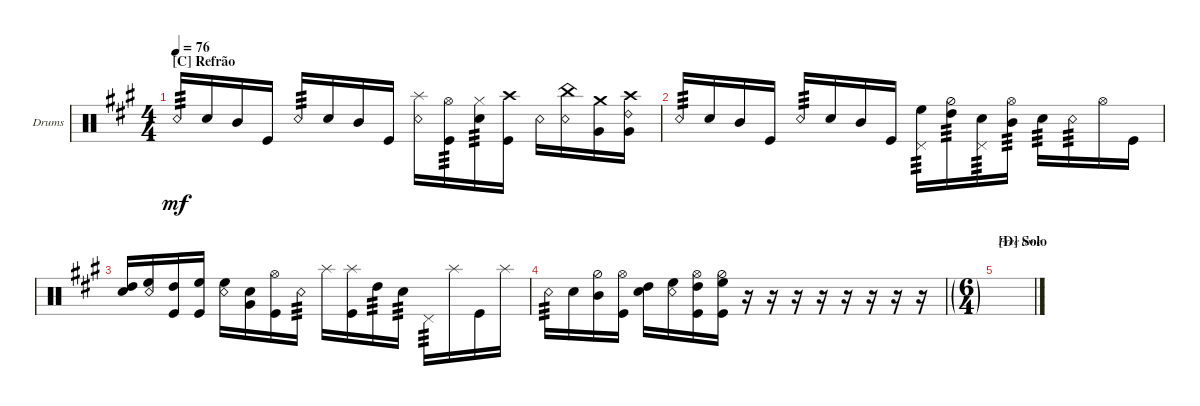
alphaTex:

\defaultSystemsLayout 4
\bracketExtendMode groupsimilarinstruments
\firstSystemTrackNameOrientation horizontal
\otherSystemsTrackNameOrientation horizontal
\track ("Drums" "Drums") {instrument percussion}
\staff {score}
\articulation defaults
\ts (4 4)
\section ("C" "Refrão")
\tempo 76
\clef neutral
\ks a "Snare (rim shot)".16{tp 3 dy mf} "Snare (hit) 2".16 "Mid Tom (hit)".16 "Kick (hit)".16 "Snare (rim shot)".16{tp 3} "Snare (hit) 2".16 "Mid Tom (hit)".16 "Kick (hit)".16
("Snare (rim shot)" "Splash (hit)").16 ("Kick (hit)" "Hi-Hat (open)").16{tp 3} ("Snare (hit) 2" "Hi-Hat (closed)").16{tp 3} ("Kick (hit)" "Crash high (hit)").16 "Snare (rim shot)".16 ("Snare (rim shot)" "China (hit)").16 ("Very Low Tom (hit)" "Crash medium (hit)").16 ("Very Low Tom (hit)" "Crash high (hit)" "Ride (bell) 2").16 |
"Snare (rim shot)".16{tp 3} "Snare (hit) 2".16 "Mid Tom (hit)".16 "Kick (hit)".16 "Snare (rim shot)".16{tp 3} "Snare (hit) 2".16 "Mid Tom (hit)".16 "Kick (hit)".16 ("High Floor Tom (hit)" "Pedal Hi-Hat (hit)").16{tp 3} ("High Tom (hit)" "Hi-Hat (half)").16{tp 3} ("Snare (hit) 2" "Pedal Hi-Hat (hit)").16{tp 3} ("Mid Tom (hit)" "Hi-Hat (open)").16{tp 3} "Snare (hit) 2".16{tp 3} "Snare (rim shot)".16{tp 3} "Hi-Hat (open)".16 "Kick (hit)".16 |
("Snare (hit) 2" "High Tom (hit)").16 ("Snare (rim shot)" "High Floor Tom (hit)").16 ("Kick (hit)" "High Tom (hit)").16 ("Kick (hit)" "High Floor Tom (hit)").16 ("Snare (rim shot)" "High Floor Tom (hit)").16 ("Snare (hit) 2" "Very Low Tom (hit)").16 ("Kick (hit)" "Hi-Hat (open)").16 "Snare (rim shot)".16{tp 3} "Splash (hit)".16 ("Splash (hit)" "Kick (hit)").16 "High Tom (hit)".16{tp 3} "Snare (hit) 2".16{tp 3} "Pedal Hi-Hat (hit)".16{tp 3} "Splash (hit)".16 "Kick (hit)".16 "Splash (hit)".16 |
"Snare (rim shot)".16{tp 3} "Snare (hit) 2".16 ("Mid Tom (hit)" "Hi-Hat (half)").16 ("Kick (hit)" "Hi-Hat (open)").16 ("Snare (hit) 2" "High Tom (hit)").16 ("Snare (rim shot)" "High Floor Tom (hit)").16 ("Kick (hit)" "High Tom (hit)" "Hi-Hat (open)").16 ("Kick (hit)" "High Floor Tom (hit)" "Hi-Hat (half)").16 r.16 r.16 r.16 r.16 r.16 r.16 r.16 r.16 |
\ts (6 4)
\ft
\section ("D" "Solo")
